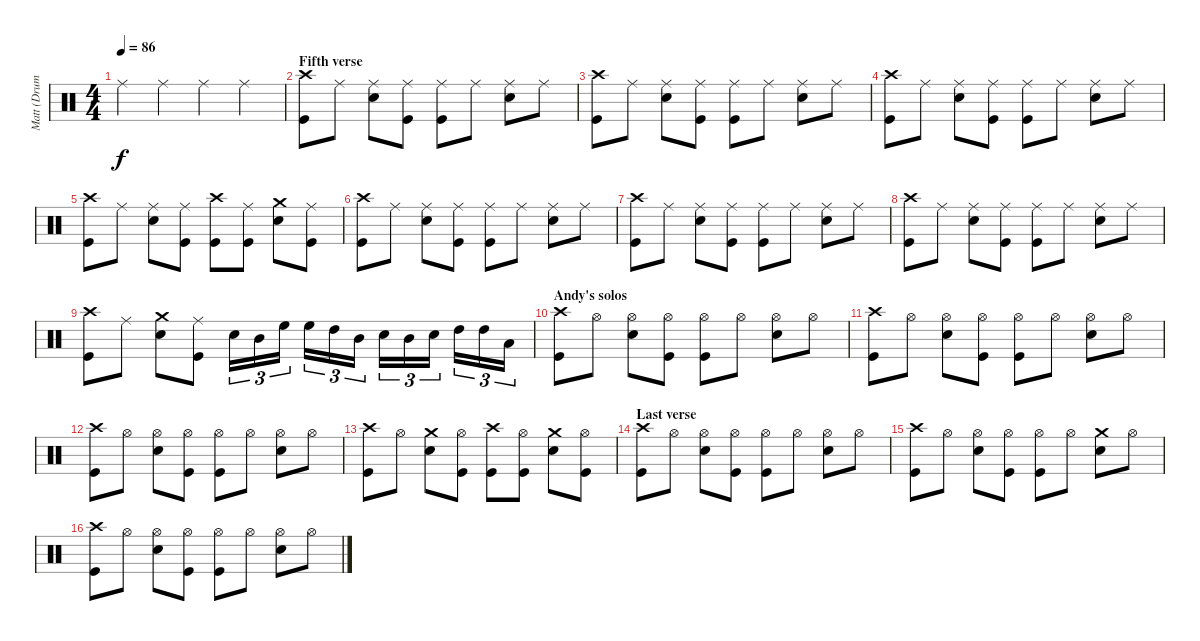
\track ("Matt (Drums)" "Matt (Drum") {instrument percussion}
\staff {score}
\articulation defaults
\ts (4 4)
\tempo 86
\clef neutral
\ks c "Ride (middle)".4{dy f} "Ride (middle)".4 "Ride (middle)".4 "Ride (middle)".4
|
\section ("" "Fifth verse")
("Crash high (hit)" "Kick (hit)").8 "Ride (middle)".8 ("Ride (middle)" "Electric Snare (hit)").8 ("Ride (middle)" "Kick (hit)").8 ("Ride (middle)" "Kick (hit)").8 "Ride (middle)".8 ("Ride (middle)" "Electric Snare (hit)").8 "Ride (middle)".8 |
("Crash high (hit)" "Kick (hit)").8 "Ride (middle)".8 ("Ride (middle)" "Electric Snare (hit)").8 ("Ride (middle)" "Kick (hit)").8 ("Ride (middle)" "Kick (hit)").8 "Ride (middle)".8 ("Ride (middle)" "Electric Snare (hit)").8 "Ride (middle)".8 |
("Crash high (hit)" "Kick (hit)").8 "Ride (middle)".8 ("Ride (middle)" "Electric Snare (hit)").8 ("Ride (middle)" "Kick (hit)").8 ("Ride (middle)" "Kick (hit)").8 "Ride (middle)".8 ("Ride (middle)" "Electric Snare (hit)").8 "Ride (middle)".8 |
("Crash high (hit)" "Kick (hit)").8 "Ride (middle)".8 ("Ride (middle)" "Electric Snare (hit)").8 ("Ride (middle)" "Kick (hit)").8 ("Crash high (hit)" "Kick (hit)").8 ("Ride (middle)" "Kick (hit)").8 ("Crash medium (hit)" "Electric Snare (hit)").8 ("Ride (middle)" "Kick (hit)").8 |
("Crash high (hit)" "Kick (hit)").8 "Ride (middle)".8 ("Ride (middle)" "Electric Snare (hit)").8 ("Ride (middle)" "Kick (hit)").8 ("Ride (middle)" "Kick (hit)").8 "Ride (middle)".8 ("Ride (middle)" "Electric Snare (hit)").8 "Ride (middle)".8 |
("Crash high (hit)" "Kick (hit)").8 "Ride (middle)".8 ("Ride (middle)" "Electric Snare (hit)").8 ("Ride (middle)" "Kick (hit)").8 ("Ride (middle)" "Kick (hit)").8 "Ride (middle)".8 ("Ride (middle)" "Electric Snare (hit)").8 "Ride (middle)".8 |
("Crash high (hit)" "Kick (hit)").8 "Ride (middle)".8 ("Ride (middle)" "Electric Snare (hit)").8 ("Ride (middle)" "Kick (hit)").8 ("Ride (middle)" "Kick (hit)").8 "Ride (middle)".8 ("Ride (middle)" "Electric Snare (hit)").8 "Ride (middle)".8 |
("Crash high (hit)" "Kick (hit)").8 "Ride (middle)".8 ("Crash medium (hit)" "Electric Snare (hit)").8 ("Ride (middle)" "Kick (hit)").8 "Electric Snare (hit)".16{tu (3 2)} "Mid Tom (hit)".16{tu (3 2)} "High Floor Tom (hit)".16{tu (3 2)} "High Floor Tom (hit)".16{tu (3 2)} "High Tom (hit)".16{tu (3 2)} "Mid Tom (hit)".16{tu (3 2)} "Electric Snare (hit)".16{tu (3 2)} "Mid Tom (hit)".16{tu (3 2)} "Electric Snare (hit)".16{tu (3 2)} "High Tom (hit)".16{tu (3 2)} "High Tom (hit)".16{tu (3 2)} "Low Tom (hit)".16{tu (3 2)} |
\section ("" "Andy's solos")
("Crash high (hit)" "Kick (hit)").8 "Hi-Hat (open)".8 ("Hi-Hat (open)" "Electric Snare (hit)").8 ("Hi-Hat (open)" "Kick (hit)").8 ("Hi-Hat (open)" "Kick (hit)").8 "Hi-Hat (open)".8 ("Hi-Hat (open)" "Electric Snare (hit)").8 "Hi-Hat (open)".8 |
("Crash high (hit)" "Kick (hit)").8 "Hi-Hat (open)".8 ("Hi-Hat (open)" "Electric Snare (hit)").8 ("Hi-Hat (open)" "Kick (hit)").8 ("Hi-Hat (open)" "Kick (hit)").8 "Hi-Hat (open)".8 ("Hi-Hat (open)" "Electric Snare (hit)").8 "Hi-Hat (open)".8 |
("Crash high (hit)" "Kick (hit)").8 "Hi-Hat (open)".8 ("Hi-Hat (open)" "Electric Snare (hit)").8 ("Hi-Hat (open)" "Kick (hit)").8 ("Hi-Hat (open)" "Kick (hit)").8 "Hi-Hat (open)".8 ("Hi-Hat (open)" "Electric Snare (hit)").8 "Hi-Hat (open)".8 |
("Crash high (hit)" "Kick (hit)").8 "Hi-Hat (open)".8 ("Crash medium (hit)" "Electric Snare (hit)").8 ("Hi-Hat (open)" "Kick (hit)").8 ("Crash high (hit)" "Kick (hit)").8 ("Hi-Hat (open)" "Kick (hit)").8 ("Crash medium (hit)" "Electric Snare (hit)").8 ("Hi-Hat (open)" "Kick (hit)").8 |
\section ("" "Last verse")
("Crash high (hit)" "Kick (hit)").8 "Hi-Hat (open)".8 ("Hi-Hat (open)" "Electric Snare (hit)").8 ("Hi-Hat (open)" "Kick (hit)").8 ("Hi-Hat (open)" "Kick (hit)").8 "Hi-Hat (open)".8 ("Hi-Hat (open)" "Electric Snare (hit)").8 "Hi-Hat (open)".8 |
("Crash high (hit)" "Kick (hit)").8 "Hi-Hat (open)".8 ("Hi-Hat (open)" "Electric Snare (hit)").8 ("Hi-Hat (open)" "Kick (hit)").8 ("Hi-Hat (open)" "Kick (hit)").8 "Hi-Hat (open)".8 ("Crash medium (hit)" "Electric Snare (hit)").8 "Hi-Hat (open)".8 |
("Crash high (hit)" "Kick (hit)").8 "Hi-Hat (open)".8 ("Hi-Hat (open)" "Electric Snare (hit)").8 ("Hi-Hat (open)" "Kick (hit)").8 ("Hi-Hat (open)" "Kick (hit)").8 "Hi-Hat (open)".8 ("Hi-Hat (open)" "Electric Snare (hit)").8 "Hi-Hat (open)".8
